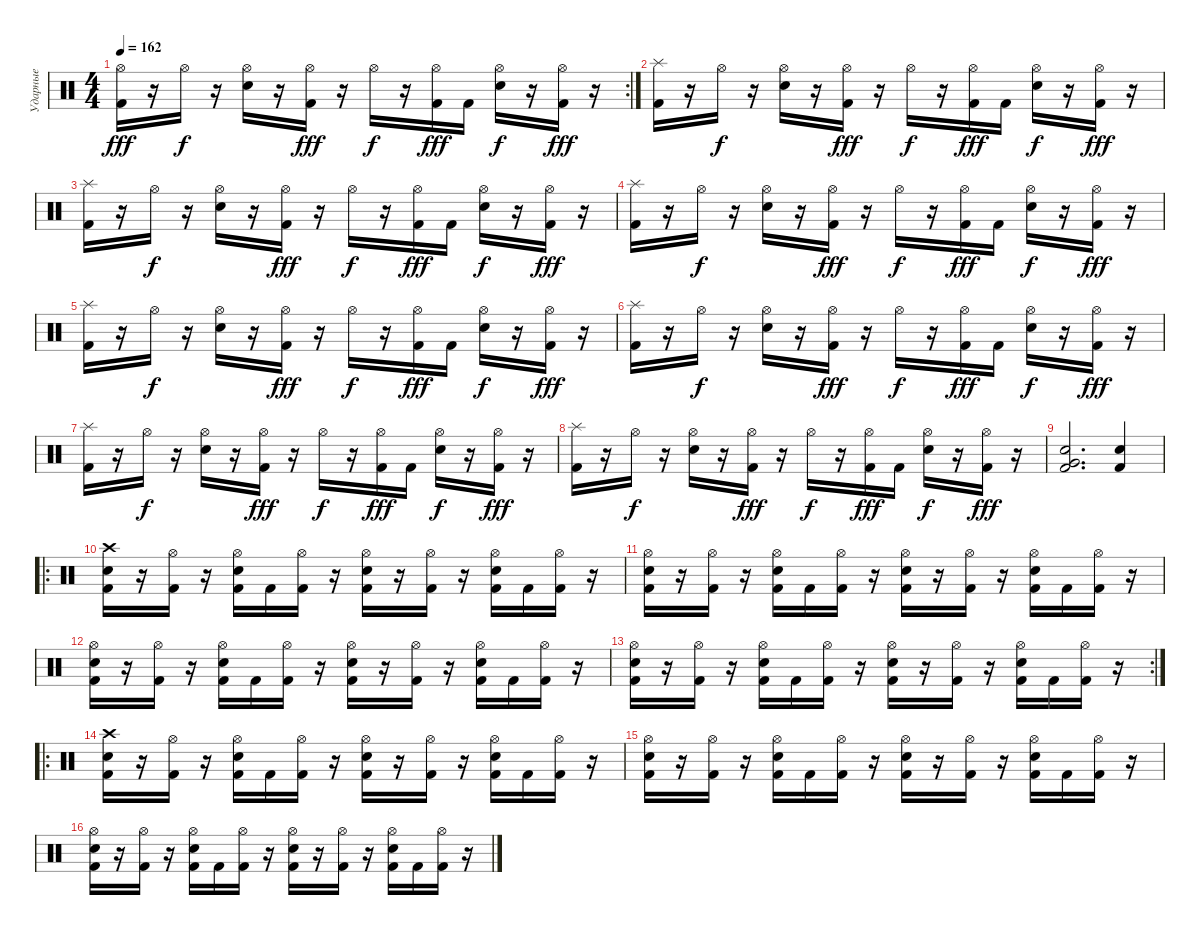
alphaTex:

\track ("Ударные" "Ударные") {instrument percussion}
\staff {score}
\articulation defaults
\rc 2
\ts (4 4)
\tempo 162
\clef neutral
\ks c
("Hi-Hat (open)" "Kick (hit) 2").16{dy fff} r.16 "Hi-Hat (open)".16{dy f} r.16 ("Hi-Hat (open)" "Electric Snare (hit)").16 r.16 ("Hi-Hat (open)" "Kick (hit) 2").16{dy fff} r.16 "Hi-Hat (open)".16{dy f} r.16 ("Hi-Hat (open)" "Kick (hit) 2").16{dy fff} "Kick (hit) 2".16 ("Hi-Hat (open)" "Electric Snare (hit)").16{dy f} r.16 ("Hi-Hat (open)" "Kick (hit) 2").16{dy fff} r.16 |
("Splash (hit)" "Kick (hit) 2").16 r.16 "Hi-Hat (open)".16{dy f} r.16 ("Hi-Hat (open)" "Electric Snare (hit)").16 r.16 ("Hi-Hat (open)" "Kick (hit) 2").16{dy fff} r.16 "Hi-Hat (open)".16{dy f} r.16 ("Hi-Hat (open)" "Kick (hit) 2").16{dy fff} "Kick (hit) 2".16 ("Hi-Hat (open)" "Electric Snare (hit)").16{dy f} r.16 ("Hi-Hat (open)" "Kick (hit) 2").16{dy fff} r.16 |
("Splash (hit)" "Kick (hit) 2").16 r.16 "Hi-Hat (open)".16{dy f} r.16 ("Hi-Hat (open)" "Electric Snare (hit)").16 r.16 ("Hi-Hat (open)" "Kick (hit) 2").16{dy fff} r.16 "Hi-Hat (open)".16{dy f} r.16 ("Hi-Hat (open)" "Kick (hit) 2").16{dy fff} "Kick (hit) 2".16 ("Hi-Hat (open)" "Electric Snare (hit)").16{dy f} r.16 ("Hi-Hat (open)" "Kick (hit) 2").16{dy fff} r.16 |
("Splash (hit)" "Kick (hit) 2").16 r.16 "Hi-Hat (open)".16{dy f} r.16 ("Hi-Hat (open)" "Electric Snare (hit)").16 r.16 ("Hi-Hat (open)" "Kick (hit) 2").16{dy fff} r.16 "Hi-Hat (open)".16{dy f} r.16 ("Hi-Hat (open)" "Kick (hit) 2").16{dy fff} "Kick (hit) 2".16 ("Hi-Hat (open)" "Electric Snare (hit)").16{dy f} r.16 ("Hi-Hat (open)" "Kick (hit) 2").16{dy fff} r.16 |
("Splash (hit)" "Kick (hit) 2").16 r.16 "Hi-Hat (open)".16{dy f} r.16 ("Hi-Hat (open)" "Electric Snare (hit)").16 r.16 ("Hi-Hat (open)" "Kick (hit) 2").16{dy fff} r.16 "Hi-Hat (open)".16{dy f} r.16 ("Hi-Hat (open)" "Kick (hit) 2").16{dy fff} "Kick (hit) 2".16 ("Hi-Hat (open)" "Electric Snare (hit)").16{dy f} r.16 ("Hi-Hat (open)" "Kick (hit) 2").16{dy fff} r.16 |
("Splash (hit)" "Kick (hit) 2").16 r.16 "Hi-Hat (open)".16{dy f} r.16 ("Hi-Hat (open)" "Electric Snare (hit)").16 r.16 ("Hi-Hat (open)" "Kick (hit) 2").16{dy fff} r.16 "Hi-Hat (open)".16{dy f} r.16 ("Hi-Hat (open)" "Kick (hit) 2").16{dy fff} "Kick (hit) 2".16 ("Hi-Hat (open)" "Electric Snare (hit)").16{dy f} r.16 ("Hi-Hat (open)" "Kick (hit) 2").16{dy fff} r.16 |
("Splash (hit)" "Kick (hit) 2").16 r.16 "Hi-Hat (open)".16{dy f} r.16 ("Hi-Hat (open)" "Electric Snare (hit)").16 r.16 ("Hi-Hat (open)" "Kick (hit) 2").16{dy fff} r.16 "Hi-Hat (open)".16{dy f} r.16 ("Hi-Hat (open)" "Kick (hit) 2").16{dy fff} "Kick (hit) 2".16 ("Hi-Hat (open)" "Electric Snare (hit)").16{dy f} r.16 ("Hi-Hat (open)" "Kick (hit) 2").16{dy fff} r.16 |
("Splash (hit)" "Kick (hit) 2").16 r.16 "Hi-Hat (open)".16{dy f} r.16 ("Hi-Hat (open)" "Electric Snare (hit)").16 r.16 ("Hi-Hat (open)" "Kick (hit) 2").16{dy fff} r.16 "Hi-Hat (open)".16{dy f} r.16 ("Hi-Hat (open)" "Kick (hit) 2").16{dy fff} "Kick (hit) 2".16 ("Hi-Hat (open)" "Electric Snare (hit)").16{dy f} r.16 ("Hi-Hat (open)" "Kick (hit) 2").16{dy fff} r.16 |
("Very Low Tom (hit)" "Electric Snare (hit)" "Kick (hit) 2").2{d} ("Electric Snare (hit)" "Kick (hit) 2").4 |
\ro
("Crash high (hit)" "Electric Snare (hit)" "Kick (hit) 2").16 r.16 ("Hi-Hat (open)" "Kick (hit) 2").16 r.16 ("Hi-Hat (open)" "Electric Snare (hit)" "Kick (hit) 2").16 "Kick (hit) 2".16 ("Hi-Hat (open)" "Kick (hit) 2").16 r.16 ("Hi-Hat (open)" "Electric Snare (hit)" "Kick (hit) 2").16 r.16 ("Hi-Hat (open)" "Kick (hit) 2").16 r.16 ("Hi-Hat (open)" "Electric Snare (hit)" "Kick (hit) 2").16 "Kick (hit) 2".16 ("Hi-Hat (open)" "Kick (hit) 2").16 r.16 |
("Hi-Hat (open)" "Electric Snare (hit)" "Kick (hit) 2").16 r.16 ("Hi-Hat (open)" "Kick (hit) 2").16 r.16 ("Hi-Hat (open)" "Electric Snare (hit)" "Kick (hit) 2").16 "Kick (hit) 2".16 ("Hi-Hat (open)" "Kick (hit) 2").16 r.16 ("Hi-Hat (open)" "Electric Snare (hit)" "Kick (hit) 2").16 r.16 ("Hi-Hat (open)" "Kick (hit) 2").16 r.16 ("Hi-Hat (open)" "Electric Snare (hit)" "Kick (hit) 2").16 "Kick (hit) 2".16 ("Hi-Hat (open)" "Kick (hit) 2").16 r.16 |
("Hi-Hat (open)" "Electric Snare (hit)" "Kick (hit) 2").16 r.16 ("Hi-Hat (open)" "Kick (hit) 2").16 r.16 ("Hi-Hat (open)" "Electric Snare (hit)" "Kick (hit) 2").16 "Kick (hit) 2".16 ("Hi-Hat (open)" "Kick (hit) 2").16 r.16 ("Hi-Hat (open)" "Electric Snare (hit)" "Kick (hit) 2").16 r.16 ("Hi-Hat (open)" "Kick (hit) 2").16 r.16 ("Hi-Hat (open)" "Electric Snare (hit)" "Kick (hit) 2").16 "Kick (hit) 2".16 ("Hi-Hat (open)" "Kick (hit) 2").16 r.16 |
\rc 2
("Hi-Hat (open)" "Electric Snare (hit)" "Kick (hit) 2").16 r.16 ("Hi-Hat (open)" "Kick (hit) 2").16 r.16 ("Hi-Hat (open)" "Electric Snare (hit)" "Kick (hit) 2").16 "Kick (hit) 2".16 ("Hi-Hat (open)" "Kick (hit) 2").16 r.16 ("Hi-Hat (open)" "Electric Snare (hit)" "Kick (hit) 2").16 r.16 ("Hi-Hat (open)" "Kick (hit) 2").16 r.16 ("Hi-Hat (open)" "Electric Snare (hit)" "Kick (hit) 2").16 "Kick (hit) 2".16 ("Hi-Hat (open)" "Kick (hit) 2").16 r.16 |
\ro
("Crash high (hit)" "Electric Snare (hit)" "Kick (hit) 2").16 r.16 ("Hi-Hat (open)" "Kick (hit) 2").16 r.16 ("Hi-Hat (open)" "Electric Snare (hit)" "Kick (hit) 2").16 "Kick (hit) 2".16 ("Hi-Hat (open)" "Kick (hit) 2").16 r.16 ("Hi-Hat (open)" "Electric Snare (hit)" "Kick (hit) 2").16 r.16 ("Hi-Hat (open)" "Kick (hit) 2").16 r.16 ("Hi-Hat (open)" "Electric Snare (hit)" "Kick (hit) 2").16 "Kick (hit) 2".16 ("Hi-Hat (open)" "Kick (hit) 2").16 r.16 |
("Hi-Hat (open)" "Electric Snare (hit)" "Kick (hit) 2").16 r.16 ("Hi-Hat (open)" "Kick (hit) 2").16 r.16 ("Hi-Hat (open)" "Electric Snare (hit)" "Kick (hit) 2").16 "Kick (hit) 2".16 ("Hi-Hat (open)" "Kick (hit) 2").16 r.16 ("Hi-Hat (open)" "Electric Snare (hit)" "Kick (hit) 2").16 r.16 ("Hi-Hat (open)" "Kick (hit) 2").16 r.16 ("Hi-Hat (open)" "Electric Snare (hit)" "Kick (hit) 2").16 "Kick (hit) 2".16 ("Hi-Hat (open)" "Kick (hit) 2").16 r.16 |
("Hi-Hat (open)" "Electric Snare (hit)" "Kick (hit) 2").16 r.16 ("Hi-Hat (open)" "Kick (hit) 2").16 r.16 ("Hi-Hat (open)" "Electric Snare (hit)" "Kick (hit) 2").16 "Kick (hit) 2".16 ("Hi-Hat (open)" "Kick (hit) 2").16 r.16 ("Hi-Hat (open)" "Electric Snare (hit)" "Kick (hit) 2").16 r.16 ("Hi-Hat (open)" "Kick (hit) 2").16 r.16 ("Hi-Hat (open)" "Electric Snare (hit)" "Kick (hit) 2").16 "Kick (hit) 2".16 ("Hi-Hat (open)" "Kick (hit) 2").16 r.16
